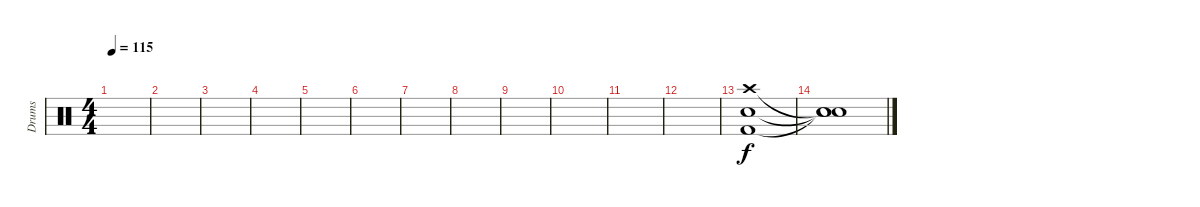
\track ("Drums" "Drums") {instrument percussion}
\staff {score}
\articulation defaults
\ts (4 4)
\tempo 115
\clef neutral
\ks c
|
|
|
|
|
|
|
|
|
|
|
|
("Electric Snare (hit)" "Crash high (hit)" "Kick (hit) 2").1 |
("Snare (hit)"{t} "Snare (hit)"{t} "Snare (hit)"{t}).1
